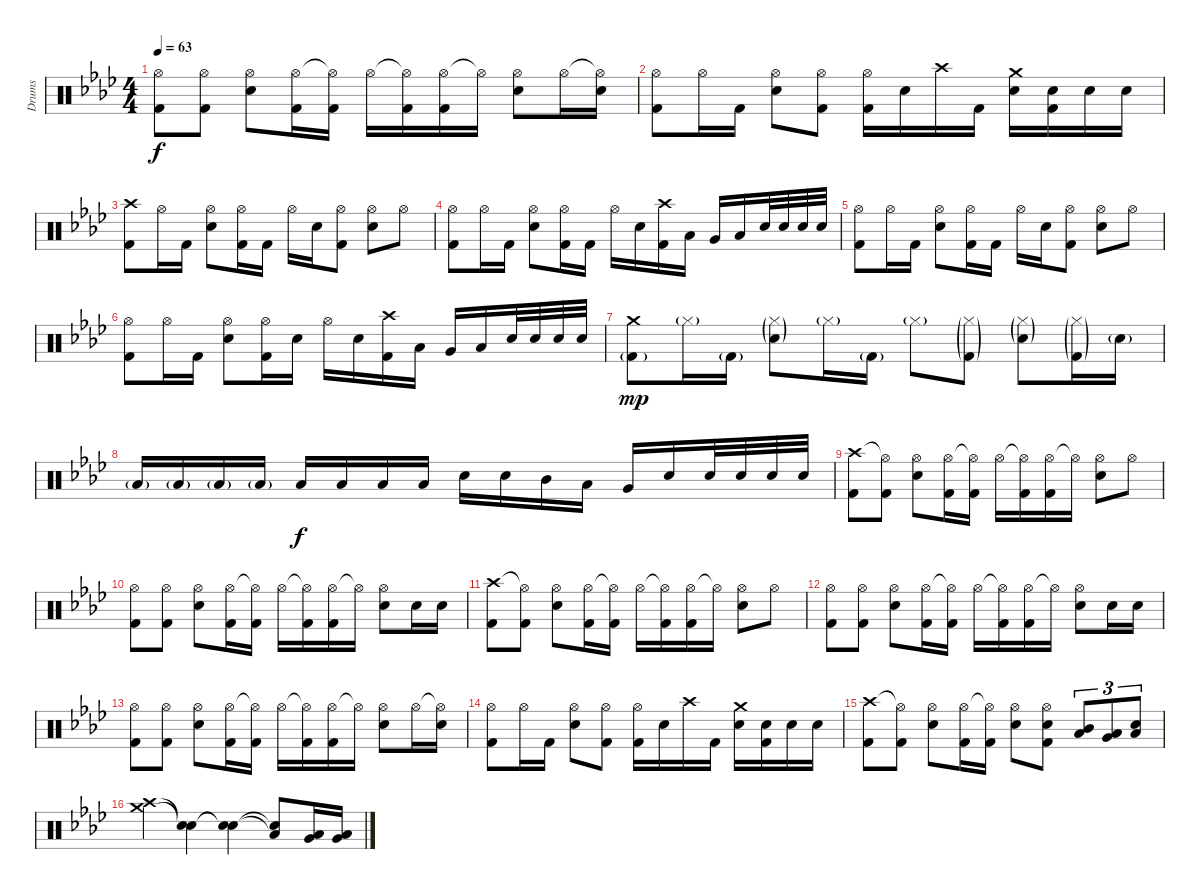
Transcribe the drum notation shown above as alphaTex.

\track ("Drums" "Drums") {instrument percussion}
\staff {score}
\articulation defaults
\ts (4 4)
\tempo 63
\clef neutral
\ks ab
("Hi-Hat (open)" "Kick (hit) 2").8{dy f} ("Hi-Hat (open)" "Kick (hit) 2").8 ("Hi-Hat (open)" "Electric Snare (hit)").8 ("Hi-Hat (open)" "Kick (hit) 2").16 ("Hi-Hat (open)"{t} "Kick (hit) 2").16 "Hi-Hat (open)".16 ("Hi-Hat (open)"{t} "Kick (hit) 2").16 ("Hi-Hat (open)" "Kick (hit) 2").16 "Hi-Hat (open)"{t}.16 ("Hi-Hat (open)" "Electric Snare (hit)").8 "Hi-Hat (open)".16 ("Hi-Hat (open)"{t} "Electric Snare (hit)").16 |
\ks fminor
("Hi-Hat (open)" "Kick (hit) 2").8 "Hi-Hat (open)".16 "Kick (hit) 2".16 ("Hi-Hat (open)" "Electric Snare (hit)").8 ("Hi-Hat (open)" "Kick (hit) 2").8 ("Hi-Hat (open)" "Kick (hit) 2").16 "Electric Snare (hit)".16 "Crash high (hit)".16 "Kick (hit) 2".16 ("Crash medium (hit)" "Electric Snare (hit)").16 ("Electric Snare (hit)" "Kick (hit) 2").16 "Electric Snare (hit)".16 "Electric Snare (hit)".16 |
("Crash high (hit)" "Kick (hit) 2").8 "Hi-Hat (open)".16 "Kick (hit) 2".16 ("Hi-Hat (open)" "Electric Snare (hit)").8 ("Hi-Hat (open)" "Kick (hit) 2").16 "Kick (hit) 2".16 "Hi-Hat (open)".16 "Electric Snare (hit)".16 ("Hi-Hat (open)" "Kick (hit) 2").8 ("Hi-Hat (open)" "Electric Snare (hit)").8 "Hi-Hat (open)".8 |
("Hi-Hat (open)" "Kick (hit) 2").8 "Hi-Hat (open)".16 "Kick (hit) 2".16 ("Hi-Hat (open)" "Electric Snare (hit)").8 ("Hi-Hat (open)" "Kick (hit) 2").16 "Kick (hit) 2".16 "Hi-Hat (open)".16 "Electric Snare (hit)".16 ("Crash high (hit)" "Kick (hit) 2").16 "Low Tom (hit)".16 "Very Low Tom (hit)".16 "Low Floor Tom (hit)".16 "Electric Snare (hit)".32 "Electric Snare (hit)".32 "Electric Snare (hit)".32 "Electric Snare (hit)".32 |
("Hi-Hat (open)" "Kick (hit) 2").8 "Hi-Hat (open)".16 "Kick (hit) 2".16 ("Hi-Hat (open)" "Electric Snare (hit)").8 ("Hi-Hat (open)" "Kick (hit) 2").16 "Kick (hit) 2".16 "Hi-Hat (open)".16 "Electric Snare (hit)".16 ("Hi-Hat (open)" "Kick (hit) 2").8 ("Hi-Hat (open)" "Electric Snare (hit)").8 "Hi-Hat (open)".8 |
("Hi-Hat (open)" "Kick (hit) 2").8 "Hi-Hat (open)".16 "Kick (hit) 2".16 ("Hi-Hat (open)" "Electric Snare (hit)").8 ("Hi-Hat (open)" "Kick (hit) 2").16 "Electric Snare (hit)".16 "Hi-Hat (open)".16 "Electric Snare (hit)".16 ("Crash high (hit)" "Kick (hit) 2").16 "Low Tom (hit)".16 "Very Low Tom (hit)".16 "Low Floor Tom (hit)".16 "Electric Snare (hit)".32 "Electric Snare (hit)".32 "Electric Snare (hit)".32 "Electric Snare (hit)".32 |
\ks ab
("Crash medium (hit)" "Kick (hit) 2"{g}).8{dy mp} "Hi-Hat (closed)"{g}.16 "Kick (hit) 2"{g}.16 ("Hi-Hat (closed)"{g} "Electric Snare (hit)"{g}).8 "Hi-Hat (closed)"{g}.16 "Kick (hit) 2"{g}.16 "Hi-Hat (closed)"{g}.8 ("Hi-Hat (closed)"{g} "Kick (hit) 2"{g}).8 ("Hi-Hat (closed)"{g} "Electric Snare (hit)"{g}).8 ("Hi-Hat (closed)"{g} "Kick (hit) 2"{g}).16 "Electric Snare (hit)"{g}.16 |
"Low Floor Tom (hit)"{g}.16 "Low Floor Tom (hit)"{g}.16 "Low Floor Tom (hit)"{g}.16 "Low Floor Tom (hit)"{g}.16 "Low Floor Tom (hit)".16{dy f} "Low Floor Tom (hit)".16 "Low Floor Tom (hit)".16 "Low Floor Tom (hit)".16 "Electric Snare (hit)".16 "Electric Snare (hit)".16 "Mid Tom (hit)".16 "Low Tom (hit)".16 "Very Low Tom (hit)".16 "Electric Snare (hit)".16 "Electric Snare (hit)".32 "Electric Snare (hit)".32 "Electric Snare (hit)".32 "Electric Snare (hit)".32 |
("Crash high (hit)" "Kick (hit) 2").8 ("Hi-Hat (open)"{t} "Kick (hit) 2").8 ("Hi-Hat (open)" "Electric Snare (hit)").8 ("Hi-Hat (open)" "Kick (hit) 2").16 ("Hi-Hat (open)"{t} "Kick (hit) 2").16 "Hi-Hat (open)".16 ("Hi-Hat (open)"{t} "Kick (hit) 2").16 ("Hi-Hat (open)" "Kick (hit) 2").16 "Hi-Hat (open)"{t}.16 ("Hi-Hat (open)" "Electric Snare (hit)").8 "Hi-Hat (open)".8 |
("Hi-Hat (open)" "Kick (hit) 2").8 ("Hi-Hat (open)" "Kick (hit) 2").8 ("Hi-Hat (open)" "Electric Snare (hit)").8 ("Hi-Hat (open)" "Kick (hit) 2").16 ("Hi-Hat (open)"{t} "Kick (hit) 2").16 "Hi-Hat (open)".16 ("Hi-Hat (open)"{t} "Kick (hit) 2").16 ("Hi-Hat (open)" "Kick (hit) 2").16 "Hi-Hat (open)"{t}.16 ("Hi-Hat (open)" "Electric Snare (hit)").8 "Electric Snare (hit)".16 "Electric Snare (hit)".16 |
("Crash high (hit)" "Kick (hit) 2").8 ("Hi-Hat (open)"{t} "Kick (hit) 2").8 ("Hi-Hat (open)" "Electric Snare (hit)").8 ("Hi-Hat (open)" "Kick (hit) 2").16 ("Hi-Hat (open)"{t} "Kick (hit) 2").16 "Hi-Hat (open)".16 ("Hi-Hat (open)"{t} "Kick (hit) 2").16 ("Hi-Hat (open)" "Kick (hit) 2").16 "Hi-Hat (open)"{t}.16 ("Hi-Hat (open)" "Electric Snare (hit)").8 "Hi-Hat (open)".8 |
("Hi-Hat (open)" "Kick (hit) 2").8 ("Hi-Hat (open)" "Kick (hit) 2").8 ("Hi-Hat (open)" "Electric Snare (hit)").8 ("Hi-Hat (open)" "Kick (hit) 2").16 ("Hi-Hat (open)"{t} "Kick (hit) 2").16 "Hi-Hat (open)".16 ("Hi-Hat (open)"{t} "Kick (hit) 2").16 ("Hi-Hat (open)" "Kick (hit) 2").16 "Hi-Hat (open)"{t}.16 ("Hi-Hat (open)" "Electric Snare (hit)").8 "Electric Snare (hit)".16 "Electric Snare (hit)".16 |
("Hi-Hat (open)" "Kick (hit) 2").8 ("Hi-Hat (open)" "Kick (hit) 2").8 ("Hi-Hat (open)" "Electric Snare (hit)").8 ("Hi-Hat (open)" "Kick (hit) 2").16 ("Hi-Hat (open)"{t} "Kick (hit) 2").16 "Hi-Hat (open)".16 ("Hi-Hat (open)"{t} "Kick (hit) 2").16 ("Hi-Hat (open)" "Kick (hit) 2").16 "Hi-Hat (open)"{t}.16 ("Hi-Hat (open)" "Electric Snare (hit)").8 "Hi-Hat (open)".16 ("Hi-Hat (open)"{t} "Electric Snare (hit)").16 |
\ks fminor
("Hi-Hat (open)" "Kick (hit) 2").8 "Hi-Hat (open)".16 "Kick (hit) 2".16 ("Hi-Hat (open)" "Electric Snare (hit)").8 ("Hi-Hat (open)" "Kick (hit) 2").8 ("Hi-Hat (open)" "Kick (hit) 2").16 "Electric Snare (hit)".16 "Crash high (hit)".16 "Kick (hit) 2".16 ("Crash medium (hit)" "Electric Snare (hit)").16 ("Electric Snare (hit)" "Kick (hit) 2").16 "Electric Snare (hit)".16 "Electric Snare (hit)".16 |
\ks ab
("Crash high (hit)" "Kick (hit) 2").8 ("Hi-Hat (open)"{t} "Kick (hit) 2").8 ("Hi-Hat (open)" "Electric Snare (hit)").8 ("Hi-Hat (open)" "Kick (hit) 2").16 ("Hi-Hat (open)"{t} "Kick (hit) 2").16 ("Hi-Hat (open)" "Electric Snare (hit)").8 ("Hi-Hat (open)" "Electric Snare (hit)" "Kick (hit) 2").8 ("Mid Tom (hit)" "Low Tom (hit)").8{tu (3 2)} ("Very Low Tom (hit)" "Low Floor Tom (hit)").8{tu (3 2)} ("Low Floor Tom (hit)" "Electric Snare (hit)").8{tu (3 2)} |
\ks fminor
("Crash high (hit)" "Crash medium (hit)").4 ("Snare (hit)"{t} "Snare (hit)"{t}).4 ("Snare (hit)"{t} "Snare (hit)"{t}).4 ("Snare (hit)"{t} "Low Tom (hit)"{t}).8 ("Low Tom (hit)" "Very Low Tom (hit)").16 ("Low Tom (hit)" "Very Low Tom (hit)").16
